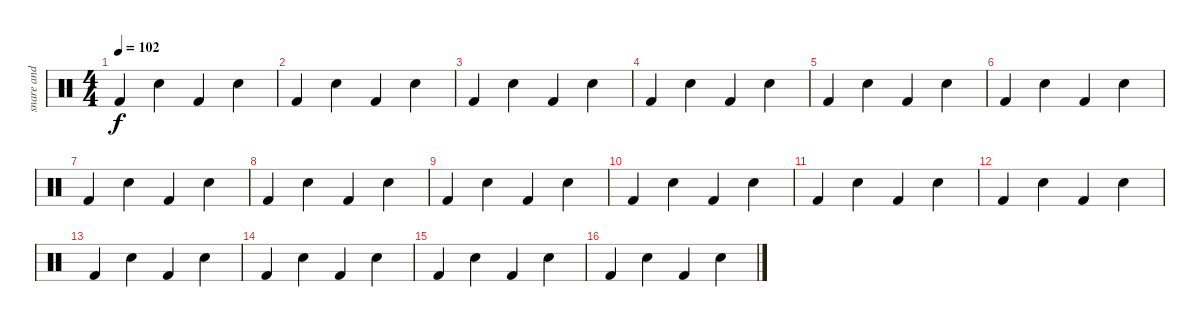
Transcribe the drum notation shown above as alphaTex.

\track ("snare and B.drum" "snare and ") {instrument percussion}
\staff {score}
\articulation defaults
\ts (4 4)
\tempo 102
\clef neutral
\ks c "Kick (hit) 2".4{dy f} "Electric Snare (hit)".4 "Kick (hit) 2".4 "Electric Snare (hit)".4
|
"Kick (hit) 2".4 "Electric Snare (hit)".4 "Kick (hit) 2".4 "Electric Snare (hit)".4 |
"Kick (hit) 2".4 "Electric Snare (hit)".4 "Kick (hit) 2".4 "Electric Snare (hit)".4 |
"Kick (hit) 2".4 "Electric Snare (hit)".4 "Kick (hit) 2".4 "Electric Snare (hit)".4 |
"Kick (hit) 2".4 "Electric Snare (hit)".4 "Kick (hit) 2".4 "Electric Snare (hit)".4 |
"Kick (hit) 2".4 "Electric Snare (hit)".4 "Kick (hit) 2".4 "Electric Snare (hit)".4 |
"Kick (hit) 2".4 "Electric Snare (hit)".4 "Kick (hit) 2".4 "Electric Snare (hit)".4 |
"Kick (hit) 2".4 "Electric Snare (hit)".4 "Kick (hit) 2".4 "Electric Snare (hit)".4 |
"Kick (hit) 2".4 "Electric Snare (hit)".4 "Kick (hit) 2".4 "Electric Snare (hit)".4 |
"Kick (hit) 2".4 "Electric Snare (hit)".4 "Kick (hit) 2".4 "Electric Snare (hit)".4 |
"Kick (hit) 2".4 "Electric Snare (hit)".4 "Kick (hit) 2".4 "Electric Snare (hit)".4 |
"Kick (hit) 2".4 "Electric Snare (hit)".4 "Kick (hit) 2".4 "Electric Snare (hit)".4 |
"Kick (hit) 2".4 "Electric Snare (hit)".4 "Kick (hit) 2".4 "Electric Snare (hit)".4 |
"Kick (hit) 2".4 "Electric Snare (hit)".4 "Kick (hit) 2".4 "Electric Snare (hit)".4 |
"Kick (hit) 2".4 "Electric Snare (hit)".4 "Kick (hit) 2".4 "Electric Snare (hit)".4 |
"Kick (hit) 2".4 "Electric Snare (hit)".4 "Kick (hit) 2".4 "Electric Snare (hit)".4
